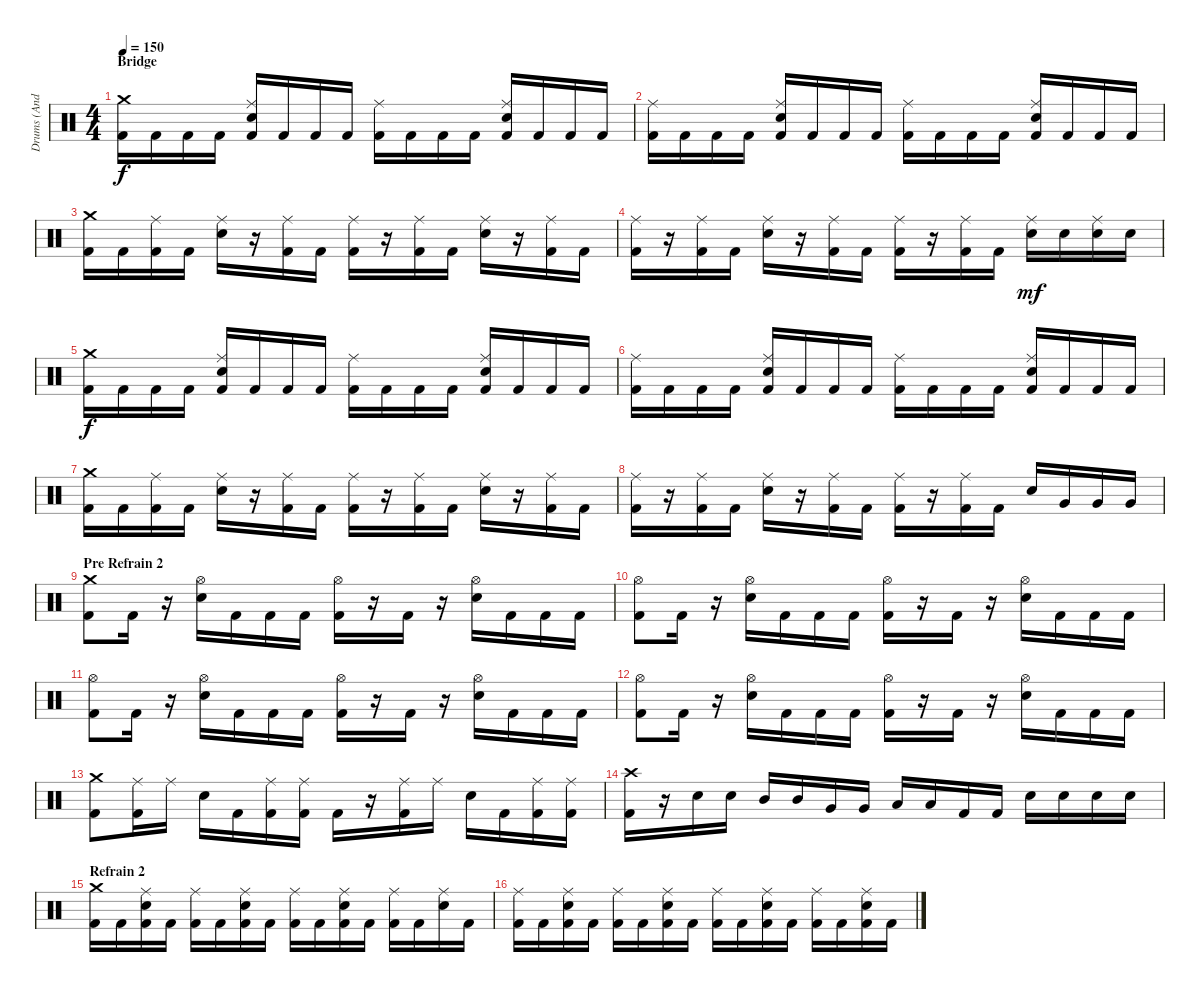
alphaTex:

\track ("Drums (Andy C)" "Drums (And") {instrument percussion}
\staff {score}
\articulation defaults
\ts (4 4)
\section ("" "Bridge")
\tempo 150
\clef neutral
\ks c
("Crash medium (hit)" "Kick (hit) 2").16{dy f} "Kick (hit) 2".16 "Kick (hit) 2".16 "Kick (hit) 2".16 ("Ride (middle)" "Kick (hit) 2" "Electric Snare (hit)").16 "Kick (hit) 2".16 "Kick (hit) 2".16 "Kick (hit) 2".16 ("Ride (middle)" "Kick (hit) 2").16 "Kick (hit) 2".16 "Kick (hit) 2".16 "Kick (hit) 2".16 ("Ride (middle)" "Kick (hit) 2" "Electric Snare (hit)").16 "Kick (hit) 2".16 "Kick (hit) 2".16 "Kick (hit) 2".16 |
("Ride (middle)" "Kick (hit) 2").16 "Kick (hit) 2".16 "Kick (hit) 2".16 "Kick (hit) 2".16 ("Ride (middle)" "Kick (hit) 2" "Electric Snare (hit)").16 "Kick (hit) 2".16 "Kick (hit) 2".16 "Kick (hit) 2".16 ("Ride (middle)" "Kick (hit) 2").16 "Kick (hit) 2".16 "Kick (hit) 2".16 "Kick (hit) 2".16 ("Ride (middle)" "Kick (hit) 2" "Electric Snare (hit)").16 "Kick (hit) 2".16 "Kick (hit) 2".16 "Kick (hit) 2".16 |
("Crash medium (hit)" "Kick (hit) 2").16 "Kick (hit) 2".16 ("Ride (middle)" "Kick (hit) 2").16 "Kick (hit) 2".16 ("Ride (middle)" "Electric Snare (hit)").16 r.16 ("Ride (middle)" "Kick (hit) 2").16 "Kick (hit) 2".16 ("Ride (middle)" "Kick (hit) 2").16 r.16 ("Ride (middle)" "Kick (hit) 2").16 "Kick (hit) 2".16 ("Ride (middle)" "Electric Snare (hit)").16 r.16 ("Ride (middle)" "Kick (hit) 2").16 "Kick (hit) 2".16 |
("Ride (middle)" "Kick (hit) 2").16 r.16 ("Ride (middle)" "Kick (hit) 2").16 "Kick (hit) 2".16 ("Ride (middle)" "Electric Snare (hit)").16 r.16 ("Ride (middle)" "Kick (hit) 2").16 "Kick (hit) 2".16 ("Ride (middle)" "Kick (hit) 2").16 r.16 ("Ride (middle)" "Kick (hit) 2").16 "Kick (hit) 2".16 ("Ride (middle)" "Electric Snare (hit)").16{dy mf} "Electric Snare (hit)".16 ("Ride (middle)" "Electric Snare (hit)").16 "Electric Snare (hit)".16 |
("Crash medium (hit)" "Kick (hit) 2").16{dy f} "Kick (hit) 2".16 "Kick (hit) 2".16 "Kick (hit) 2".16 ("Ride (middle)" "Kick (hit) 2" "Electric Snare (hit)").16 "Kick (hit) 2".16 "Kick (hit) 2".16 "Kick (hit) 2".16 ("Ride (middle)" "Kick (hit) 2").16 "Kick (hit) 2".16 "Kick (hit) 2".16 "Kick (hit) 2".16 ("Ride (middle)" "Kick (hit) 2" "Electric Snare (hit)").16 "Kick (hit) 2".16 "Kick (hit) 2".16 "Kick (hit) 2".16 |
("Ride (middle)" "Kick (hit) 2").16 "Kick (hit) 2".16 "Kick (hit) 2".16 "Kick (hit) 2".16 ("Ride (middle)" "Kick (hit) 2" "Electric Snare (hit)").16 "Kick (hit) 2".16 "Kick (hit) 2".16 "Kick (hit) 2".16 ("Ride (middle)" "Kick (hit) 2").16 "Kick (hit) 2".16 "Kick (hit) 2".16 "Kick (hit) 2".16 ("Ride (middle)" "Kick (hit) 2" "Electric Snare (hit)").16 "Kick (hit) 2".16 "Kick (hit) 2".16 "Kick (hit) 2".16 |
("Crash medium (hit)" "Kick (hit) 2").16 "Kick (hit) 2".16 ("Ride (middle)" "Kick (hit) 2").16 "Kick (hit) 2".16 ("Ride (middle)" "Electric Snare (hit)").16 r.16 ("Ride (middle)" "Kick (hit) 2").16 "Kick (hit) 2".16 ("Ride (middle)" "Kick (hit) 2").16 r.16 ("Ride (middle)" "Kick (hit) 2").16 "Kick (hit) 2".16 ("Ride (middle)" "Electric Snare (hit)").16 r.16 ("Ride (middle)" "Kick (hit) 2").16 "Kick (hit) 2".16 |
("Ride (middle)" "Kick (hit) 2").16 r.16 ("Ride (middle)" "Kick (hit) 2").16 "Kick (hit) 2".16 ("Ride (middle)" "Electric Snare (hit)").16 r.16 ("Ride (middle)" "Kick (hit) 2").16 "Kick (hit) 2".16 ("Ride (middle)" "Kick (hit) 2").16 r.16 ("Ride (middle)" "Kick (hit) 2").16 "Kick (hit) 2".16 "Electric Snare (hit)".16 "Very Low Tom (hit)".16 "Very Low Tom (hit)".16 "Very Low Tom (hit)".16 |
\section ("" "Pre Refrain 2")
("Crash medium (hit)" "Kick (hit) 2").8 "Kick (hit) 2".16 r.16 ("Hi-Hat (open)" "Electric Snare (hit)").16 "Kick (hit) 2".16 "Kick (hit) 2".16 "Kick (hit) 2".16 ("Hi-Hat (open)" "Kick (hit) 2").16 r.16 "Kick (hit) 2".16 r.16 ("Hi-Hat (open)" "Electric Snare (hit)").16 "Kick (hit) 2".16 "Kick (hit) 2".16 "Kick (hit) 2".16 |
("Hi-Hat (open)" "Kick (hit) 2").8 "Kick (hit) 2".16 r.16 ("Hi-Hat (open)" "Electric Snare (hit)").16 "Kick (hit) 2".16 "Kick (hit) 2".16 "Kick (hit) 2".16 ("Hi-Hat (open)" "Kick (hit) 2").16 r.16 "Kick (hit) 2".16 r.16 ("Hi-Hat (open)" "Electric Snare (hit)").16 "Kick (hit) 2".16 "Kick (hit) 2".16 "Kick (hit) 2".16 |
("Hi-Hat (open)" "Kick (hit) 2").8 "Kick (hit) 2".16 r.16 ("Hi-Hat (open)" "Electric Snare (hit)").16 "Kick (hit) 2".16 "Kick (hit) 2".16 "Kick (hit) 2".16 ("Hi-Hat (open)" "Kick (hit) 2").16 r.16 "Kick (hit) 2".16 r.16 ("Hi-Hat (open)" "Electric Snare (hit)").16 "Kick (hit) 2".16 "Kick (hit) 2".16 "Kick (hit) 2".16 |
("Hi-Hat (open)" "Kick (hit) 2").8 "Kick (hit) 2".16 r.16 ("Hi-Hat (open)" "Electric Snare (hit)").16 "Kick (hit) 2".16 "Kick (hit) 2".16 "Kick (hit) 2".16 ("Hi-Hat (open)" "Kick (hit) 2").16 r.16 "Kick (hit) 2".16 r.16 ("Hi-Hat (open)" "Electric Snare (hit)").16 "Kick (hit) 2".16 "Kick (hit) 2".16 "Kick (hit) 2".16 |
("Crash medium (hit)" "Kick (hit) 2").8 ("Ride (middle)" "Kick (hit) 2").16 "Ride (middle)".16 "Electric Snare (hit)".16 "Kick (hit) 2".16 ("Ride (middle)" "Kick (hit) 2").16 ("Ride (middle)" "Kick (hit) 2").16 "Kick (hit) 2".16 r.16 ("Ride (middle)" "Kick (hit) 2").16 "Ride (middle)".16 "Electric Snare (hit)".16 "Kick (hit) 2".16 ("Ride (middle)" "Kick (hit) 2").16 ("Ride (middle)" "Kick (hit) 2").16 |
("Crash high (hit)" "Kick (hit) 2").16 r.16 "Electric Snare (hit)".16 "Electric Snare (hit)".16 "Mid Tom (hit)".16 "Mid Tom (hit)".16 "Very Low Tom (hit)".16 "Very Low Tom (hit)".16 "Low Floor Tom (hit)".16 "Low Floor Tom (hit)".16 "Kick (hit) 2".16 "Kick (hit) 2".16 "Electric Snare (hit)".16 "Electric Snare (hit)".16 "Electric Snare (hit)".16 "Electric Snare (hit)".16 |
\section ("" "Refrain 2")
("Crash medium (hit)" "Kick (hit) 2").16 "Kick (hit) 2".16 ("Ride (middle)" "Kick (hit) 2" "Electric Snare (hit)").16 "Kick (hit) 2".16 ("Ride (middle)" "Kick (hit) 2").16 "Kick (hit) 2".16 ("Ride (middle)" "Kick (hit) 2" "Electric Snare (hit)").16 "Kick (hit) 2".16 ("Ride (middle)" "Kick (hit) 2").16 "Kick (hit) 2".16 ("Ride (middle)" "Kick (hit) 2" "Electric Snare (hit)").16 "Kick (hit) 2".16 ("Ride (middle)" "Kick (hit) 2").16 "Kick (hit) 2".16 ("Ride (middle)" "Electric Snare (hit)").16 "Kick (hit) 2".16 |
("Ride (middle)" "Kick (hit) 2").16 "Kick (hit) 2".16 ("Ride (middle)" "Kick (hit) 2" "Electric Snare (hit)").16 "Kick (hit) 2".16 ("Ride (middle)" "Kick (hit) 2").16 "Kick (hit) 2".16 ("Ride (middle)" "Kick (hit) 2" "Electric Snare (hit)").16 "Kick (hit) 2".16 ("Ride (middle)" "Kick (hit) 2").16 "Kick (hit) 2".16 ("Ride (middle)" "Kick (hit) 2" "Electric Snare (hit)").16 "Kick (hit) 2".16 ("Ride (middle)" "Kick (hit) 2").16 "Kick (hit) 2".16 ("Ride (middle)" "Kick (hit) 2" "Electric Snare (hit)").16 "Kick (hit) 2".16
